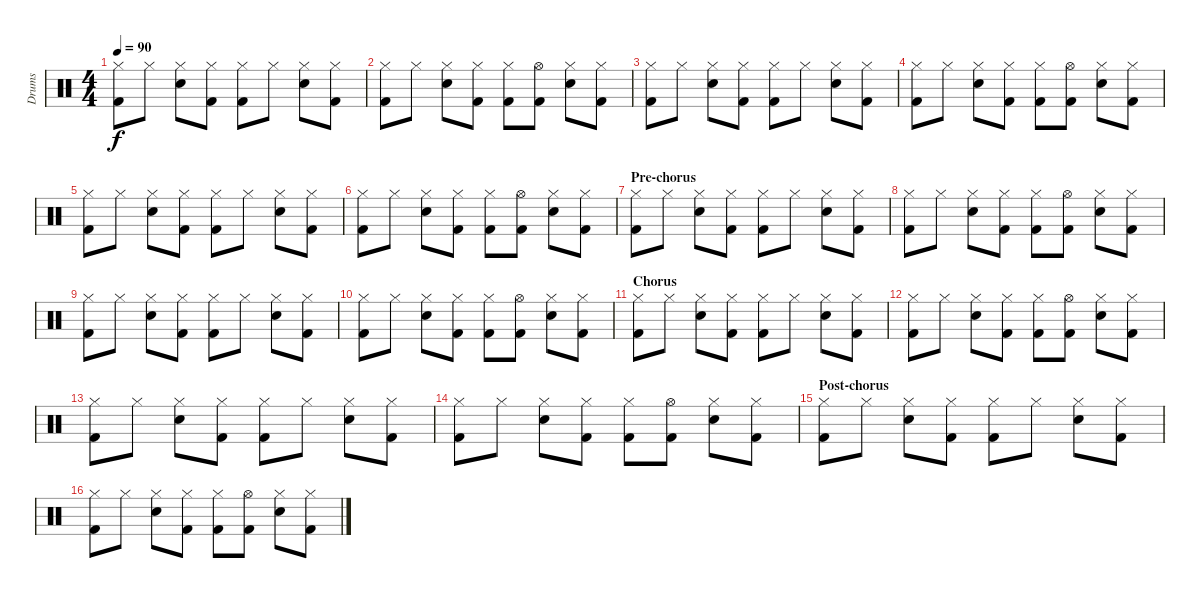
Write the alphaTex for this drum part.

\track ("Drums" "Drums") {instrument percussion}
\staff {score}
\articulation defaults
\ts (4 4)
\tempo 90
\clef neutral
\ks c
("Hi-Hat (closed)" "Kick (hit) 2").8{dy f} "Hi-Hat (closed)".8 ("Hi-Hat (closed)" "Electric Snare (hit)").8 ("Hi-Hat (closed)" "Kick (hit) 2").8 ("Hi-Hat (closed)" "Kick (hit) 2").8 "Hi-Hat (closed)".8 ("Hi-Hat (closed)" "Electric Snare (hit)").8 ("Hi-Hat (closed)" "Kick (hit) 2").8 |
("Hi-Hat (closed)" "Kick (hit) 2").8 "Hi-Hat (closed)".8 ("Hi-Hat (closed)" "Electric Snare (hit)").8 ("Hi-Hat (closed)" "Kick (hit) 2").8 ("Hi-Hat (closed)" "Kick (hit) 2").8 ("Hi-Hat (open)" "Kick (hit) 2").8 ("Hi-Hat (closed)" "Electric Snare (hit)").8 ("Hi-Hat (closed)" "Kick (hit) 2").8 |
("Hi-Hat (closed)" "Kick (hit) 2").8 "Hi-Hat (closed)".8 ("Hi-Hat (closed)" "Electric Snare (hit)").8 ("Hi-Hat (closed)" "Kick (hit) 2").8 ("Hi-Hat (closed)" "Kick (hit) 2").8 "Hi-Hat (closed)".8 ("Hi-Hat (closed)" "Electric Snare (hit)").8 ("Hi-Hat (closed)" "Kick (hit) 2").8 |
("Hi-Hat (closed)" "Kick (hit) 2").8 "Hi-Hat (closed)".8 ("Hi-Hat (closed)" "Electric Snare (hit)").8 ("Hi-Hat (closed)" "Kick (hit) 2").8 ("Hi-Hat (closed)" "Kick (hit) 2").8 ("Hi-Hat (open)" "Kick (hit) 2").8 ("Hi-Hat (closed)" "Electric Snare (hit)").8 ("Hi-Hat (closed)" "Kick (hit) 2").8 |
("Hi-Hat (closed)" "Kick (hit) 2").8 "Hi-Hat (closed)".8 ("Hi-Hat (closed)" "Electric Snare (hit)").8 ("Hi-Hat (closed)" "Kick (hit) 2").8 ("Hi-Hat (closed)" "Kick (hit) 2").8 "Hi-Hat (closed)".8 ("Hi-Hat (closed)" "Electric Snare (hit)").8 ("Hi-Hat (closed)" "Kick (hit) 2").8 |
("Hi-Hat (closed)" "Kick (hit) 2").8 "Hi-Hat (closed)".8 ("Hi-Hat (closed)" "Electric Snare (hit)").8 ("Hi-Hat (closed)" "Kick (hit) 2").8 ("Hi-Hat (closed)" "Kick (hit) 2").8 ("Hi-Hat (open)" "Kick (hit) 2").8 ("Hi-Hat (closed)" "Electric Snare (hit)").8 ("Hi-Hat (closed)" "Kick (hit) 2").8 |
\section ("" "Pre-chorus")
("Hi-Hat (closed)" "Kick (hit) 2").8 "Hi-Hat (closed)".8 ("Hi-Hat (closed)" "Electric Snare (hit)").8 ("Hi-Hat (closed)" "Kick (hit) 2").8 ("Hi-Hat (closed)" "Kick (hit) 2").8 "Hi-Hat (closed)".8 ("Hi-Hat (closed)" "Electric Snare (hit)").8 ("Hi-Hat (closed)" "Kick (hit) 2").8 |
("Hi-Hat (closed)" "Kick (hit) 2").8 "Hi-Hat (closed)".8 ("Hi-Hat (closed)" "Electric Snare (hit)").8 ("Hi-Hat (closed)" "Kick (hit) 2").8 ("Hi-Hat (closed)" "Kick (hit) 2").8 ("Hi-Hat (open)" "Kick (hit) 2").8 ("Hi-Hat (closed)" "Electric Snare (hit)").8 ("Hi-Hat (closed)" "Kick (hit) 2").8 |
("Hi-Hat (closed)" "Kick (hit) 2").8 "Hi-Hat (closed)".8 ("Hi-Hat (closed)" "Electric Snare (hit)").8 ("Hi-Hat (closed)" "Kick (hit) 2").8 ("Hi-Hat (closed)" "Kick (hit) 2").8 "Hi-Hat (closed)".8 ("Hi-Hat (closed)" "Electric Snare (hit)").8 ("Hi-Hat (closed)" "Kick (hit) 2").8 |
("Hi-Hat (closed)" "Kick (hit) 2").8 "Hi-Hat (closed)".8 ("Hi-Hat (closed)" "Electric Snare (hit)").8 ("Hi-Hat (closed)" "Kick (hit) 2").8 ("Hi-Hat (closed)" "Kick (hit) 2").8 ("Hi-Hat (open)" "Kick (hit) 2").8 ("Hi-Hat (closed)" "Electric Snare (hit)").8 ("Hi-Hat (closed)" "Kick (hit) 2").8 |
\section ("" "Chorus")
("Hi-Hat (closed)" "Kick (hit) 2").8 "Hi-Hat (closed)".8 ("Hi-Hat (closed)" "Electric Snare (hit)").8 ("Hi-Hat (closed)" "Kick (hit) 2").8 ("Hi-Hat (closed)" "Kick (hit) 2").8 "Hi-Hat (closed)".8 ("Hi-Hat (closed)" "Electric Snare (hit)").8 ("Hi-Hat (closed)" "Kick (hit) 2").8 |
("Hi-Hat (closed)" "Kick (hit) 2").8 "Hi-Hat (closed)".8 ("Hi-Hat (closed)" "Electric Snare (hit)").8 ("Hi-Hat (closed)" "Kick (hit) 2").8 ("Hi-Hat (closed)" "Kick (hit) 2").8 ("Hi-Hat (open)" "Kick (hit) 2").8 ("Hi-Hat (closed)" "Electric Snare (hit)").8 ("Hi-Hat (closed)" "Kick (hit) 2").8 |
("Hi-Hat (closed)" "Kick (hit) 2").8 "Hi-Hat (closed)".8 ("Hi-Hat (closed)" "Electric Snare (hit)").8 ("Hi-Hat (closed)" "Kick (hit) 2").8 ("Hi-Hat (closed)" "Kick (hit) 2").8 "Hi-Hat (closed)".8 ("Hi-Hat (closed)" "Electric Snare (hit)").8 ("Hi-Hat (closed)" "Kick (hit) 2").8 |
("Hi-Hat (closed)" "Kick (hit) 2").8 "Hi-Hat (closed)".8 ("Hi-Hat (closed)" "Electric Snare (hit)").8 ("Hi-Hat (closed)" "Kick (hit) 2").8 ("Hi-Hat (closed)" "Kick (hit) 2").8 ("Hi-Hat (open)" "Kick (hit) 2").8 ("Hi-Hat (closed)" "Electric Snare (hit)").8 ("Hi-Hat (closed)" "Kick (hit) 2").8 |
\section ("" "Post-chorus")
("Hi-Hat (closed)" "Kick (hit) 2").8 "Hi-Hat (closed)".8 ("Hi-Hat (closed)" "Electric Snare (hit)").8 ("Hi-Hat (closed)" "Kick (hit) 2").8 ("Hi-Hat (closed)" "Kick (hit) 2").8 "Hi-Hat (closed)".8 ("Hi-Hat (closed)" "Electric Snare (hit)").8 ("Hi-Hat (closed)" "Kick (hit) 2").8 |
("Hi-Hat (closed)" "Kick (hit) 2").8 "Hi-Hat (closed)".8 ("Hi-Hat (closed)" "Electric Snare (hit)").8 ("Hi-Hat (closed)" "Kick (hit) 2").8 ("Hi-Hat (closed)" "Kick (hit) 2").8 ("Hi-Hat (open)" "Kick (hit) 2").8 ("Hi-Hat (closed)" "Electric Snare (hit)").8 ("Hi-Hat (closed)" "Kick (hit) 2").8
